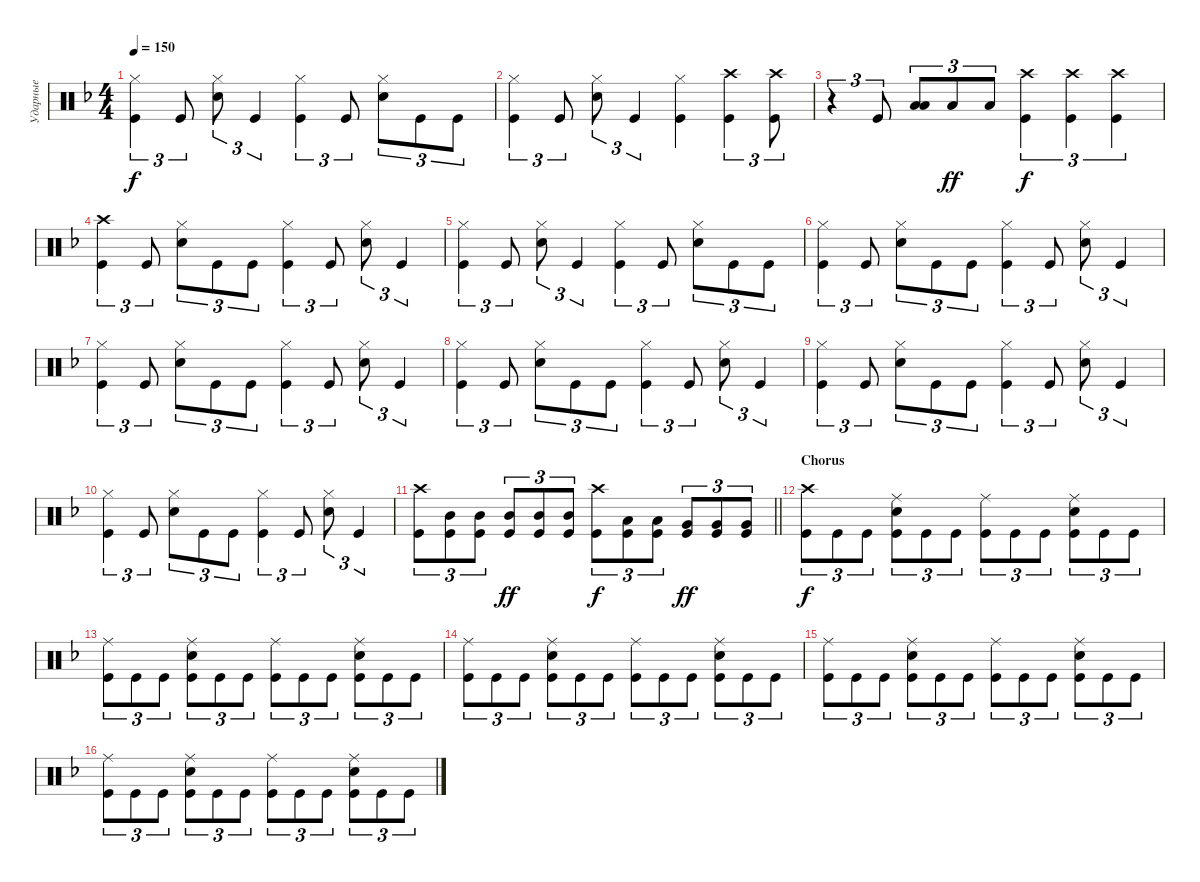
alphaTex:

\track ("Ударные" "Ударные") {instrument percussion}
\staff {score}
\articulation defaults
\ts (4 4)
\tempo 150
\clef neutral
\ks dminor
("Kick (hit)" "Hi-Hat (closed)").4{tu (3 2) dy f} "Kick (hit)".8{tu (3 2)} ("Snare (hit) 2" "Hi-Hat (closed)").8{tu (3 2)} "Kick (hit)".4{tu (3 2)} ("Kick (hit)" "Hi-Hat (closed)").4{tu (3 2)} "Kick (hit)".8{tu (3 2)} ("Snare (hit) 2" "Hi-Hat (closed)").8{tu (3 2)} "Kick (hit)".8{tu (3 2)} "Kick (hit)".8{tu (3 2)} |
("Kick (hit)" "Hi-Hat (closed)").4{tu (3 2)} "Kick (hit)".8{tu (3 2)} ("Snare (hit) 2" "Hi-Hat (closed)").8{tu (3 2)} "Kick (hit)".4{tu (3 2)} ("Kick (hit)" "Hi-Hat (closed)").4 ("Kick (hit)" "Crash high (hit)").4{tu (3 2)} ("Kick (hit)" "Crash high (hit)").8{tu (3 2)} |
r.4{tu (3 2)} "Kick (hit)".8{tu (3 2)} ("Low Tom (hit)" "Low Tom (hit)").8{tu (3 2) bd 480} "Low Tom (hit)".8{tu (3 2) dy ff} "Low Tom (hit)".8{tu (3 2)} ("Kick (hit)" "Crash high (hit)").4{tu (3 2) dy f} ("Kick (hit)" "Crash high (hit)").4{tu (3 2)} ("Kick (hit)" "Crash high (hit)").4{tu (3 2)} |
("Kick (hit)" "Crash high (hit)").4{tu (3 2)} "Kick (hit)".8{tu (3 2)} ("Snare (hit) 2" "Hi-Hat (closed)").8{tu (3 2)} "Kick (hit)".8{tu (3 2)} "Kick (hit)".8{tu (3 2)} ("Kick (hit)" "Hi-Hat (closed)").4{tu (3 2)} "Kick (hit)".8{tu (3 2)} ("Snare (hit) 2" "Hi-Hat (closed)").8{tu (3 2)} "Kick (hit)".4{tu (3 2)} |
("Kick (hit)" "Hi-Hat (closed)").4{tu (3 2)} "Kick (hit)".8{tu (3 2)} ("Snare (hit) 2" "Hi-Hat (closed)").8{tu (3 2)} "Kick (hit)".4{tu (3 2)} ("Kick (hit)" "Hi-Hat (closed)").4{tu (3 2)} "Kick (hit)".8{tu (3 2)} ("Snare (hit) 2" "Hi-Hat (closed)").8{tu (3 2)} "Kick (hit)".8{tu (3 2)} "Kick (hit)".8{tu (3 2)} |
("Kick (hit)" "Hi-Hat (closed)").4{tu (3 2)} "Kick (hit)".8{tu (3 2)} ("Snare (hit) 2" "Hi-Hat (closed)").8{tu (3 2)} "Kick (hit)".8{tu (3 2)} "Kick (hit)".8{tu (3 2)} ("Kick (hit)" "Hi-Hat (closed)").4{tu (3 2)} "Kick (hit)".8{tu (3 2)} ("Snare (hit) 2" "Hi-Hat (closed)").8{tu (3 2)} "Kick (hit)".4{tu (3 2)} |
("Kick (hit)" "Hi-Hat (closed)").4{tu (3 2)} "Kick (hit)".8{tu (3 2)} ("Snare (hit) 2" "Hi-Hat (closed)").8{tu (3 2)} "Kick (hit)".8{tu (3 2)} "Kick (hit)".8{tu (3 2)} ("Kick (hit)" "Hi-Hat (closed)").4{tu (3 2)} "Kick (hit)".8{tu (3 2)} ("Snare (hit) 2" "Hi-Hat (closed)").8{tu (3 2)} "Kick (hit)".4{tu (3 2)} |
("Kick (hit)" "Hi-Hat (closed)").4{tu (3 2)} "Kick (hit)".8{tu (3 2)} ("Snare (hit) 2" "Hi-Hat (closed)").8{tu (3 2)} "Kick (hit)".8{tu (3 2)} "Kick (hit)".8{tu (3 2)} ("Kick (hit)" "Hi-Hat (closed)").4{tu (3 2)} "Kick (hit)".8{tu (3 2)} ("Snare (hit) 2" "Hi-Hat (closed)").8{tu (3 2)} "Kick (hit)".4{tu (3 2)} |
("Kick (hit)" "Hi-Hat (closed)").4{tu (3 2)} "Kick (hit)".8{tu (3 2)} ("Snare (hit) 2" "Hi-Hat (closed)").8{tu (3 2)} "Kick (hit)".8{tu (3 2)} "Kick (hit)".8{tu (3 2)} ("Kick (hit)" "Hi-Hat (closed)").4{tu (3 2)} "Kick (hit)".8{tu (3 2)} ("Snare (hit) 2" "Hi-Hat (closed)").8{tu (3 2)} "Kick (hit)".4{tu (3 2)} |
("Kick (hit)" "Hi-Hat (closed)").4{tu (3 2)} "Kick (hit)".8{tu (3 2)} ("Snare (hit) 2" "Hi-Hat (closed)").8{tu (3 2)} "Kick (hit)".8{tu (3 2)} "Kick (hit)".8{tu (3 2)} ("Kick (hit)" "Hi-Hat (closed)").4{tu (3 2)} "Kick (hit)".8{tu (3 2)} ("Snare (hit) 2" "Hi-Hat (closed)").8{tu (3 2)} "Kick (hit)".4{tu (3 2)} |
\barLineRight lightlight
("Kick (hit)" "Crash high (hit)").8{tu (3 2)} ("Mid Tom (hit)" "Kick (hit)").8{tu (3 2)} ("Mid Tom (hit)" "Kick (hit)").8{tu (3 2)} ("Mid Tom (hit)" "Kick (hit)").8{tu (3 2) dy ff} ("Mid Tom (hit)" "Kick (hit)").8{tu (3 2)} ("Mid Tom (hit)" "Kick (hit)").8{tu (3 2)} ("Kick (hit)" "Crash high (hit)").8{tu (3 2) dy f} ("Low Tom (hit)" "Kick (hit)").8{tu (3 2)} ("Low Tom (hit)" "Kick (hit)").8{tu (3 2)} ("Very Low Tom (hit)" "Kick (hit)").8{tu (3 2) dy ff} ("Very Low Tom (hit)" "Kick (hit)").8{tu (3 2)} ("Very Low Tom (hit)" "Kick (hit)").8{tu (3 2)} |
\section ("" "Chorus")
("Kick (hit)" "Crash high (hit)").8{tu (3 2) dy f} "Kick (hit)".8{tu (3 2)} "Kick (hit)".8{tu (3 2)} ("Snare (hit) 2" "Kick (hit)" "Ride (middle)").8{tu (3 2)} "Kick (hit)".8{tu (3 2)} "Kick (hit)".8{tu (3 2)} ("Kick (hit)" "Ride (middle)").8{tu (3 2)} "Kick (hit)".8{tu (3 2)} "Kick (hit)".8{tu (3 2)} ("Kick (hit)" "Snare (hit) 2" "Ride (middle)").8{tu (3 2)} "Kick (hit)".8{tu (3 2)} "Kick (hit)".8{tu (3 2)} |
("Kick (hit)" "Ride (middle)").8{tu (3 2)} "Kick (hit)".8{tu (3 2)} "Kick (hit)".8{tu (3 2)} ("Snare (hit) 2" "Kick (hit)" "Ride (middle)").8{tu (3 2)} "Kick (hit)".8{tu (3 2)} "Kick (hit)".8{tu (3 2)} ("Kick (hit)" "Ride (middle)").8{tu (3 2)} "Kick (hit)".8{tu (3 2)} "Kick (hit)".8{tu (3 2)} ("Kick (hit)" "Snare (hit) 2" "Ride (middle)").8{tu (3 2)} "Kick (hit)".8{tu (3 2)} "Kick (hit)".8{tu (3 2)} |
("Kick (hit)" "Ride (middle)").8{tu (3 2)} "Kick (hit)".8{tu (3 2)} "Kick (hit)".8{tu (3 2)} ("Snare (hit) 2" "Kick (hit)" "Ride (middle)").8{tu (3 2)} "Kick (hit)".8{tu (3 2)} "Kick (hit)".8{tu (3 2)} ("Kick (hit)" "Ride (middle)").8{tu (3 2)} "Kick (hit)".8{tu (3 2)} "Kick (hit)".8{tu (3 2)} ("Kick (hit)" "Snare (hit) 2" "Ride (middle)").8{tu (3 2)} "Kick (hit)".8{tu (3 2)} "Kick (hit)".8{tu (3 2)} |
("Kick (hit)" "Ride (middle)").8{tu (3 2)} "Kick (hit)".8{tu (3 2)} "Kick (hit)".8{tu (3 2)} ("Snare (hit) 2" "Kick (hit)" "Ride (middle)").8{tu (3 2)} "Kick (hit)".8{tu (3 2)} "Kick (hit)".8{tu (3 2)} ("Kick (hit)" "Ride (middle)").8{tu (3 2)} "Kick (hit)".8{tu (3 2)} "Kick (hit)".8{tu (3 2)} ("Kick (hit)" "Snare (hit) 2" "Ride (middle)").8{tu (3 2)} "Kick (hit)".8{tu (3 2)} "Kick (hit)".8{tu (3 2)} |
("Kick (hit)" "Ride (middle)").8{tu (3 2)} "Kick (hit)".8{tu (3 2)} "Kick (hit)".8{tu (3 2)} ("Snare (hit) 2" "Kick (hit)" "Ride (middle)").8{tu (3 2)} "Kick (hit)".8{tu (3 2)} "Kick (hit)".8{tu (3 2)} ("Kick (hit)" "Ride (middle)").8{tu (3 2)} "Kick (hit)".8{tu (3 2)} "Kick (hit)".8{tu (3 2)} ("Kick (hit)" "Snare (hit) 2" "Ride (middle)").8{tu (3 2)} "Kick (hit)".8{tu (3 2)} "Kick (hit)".8{tu (3 2)}
